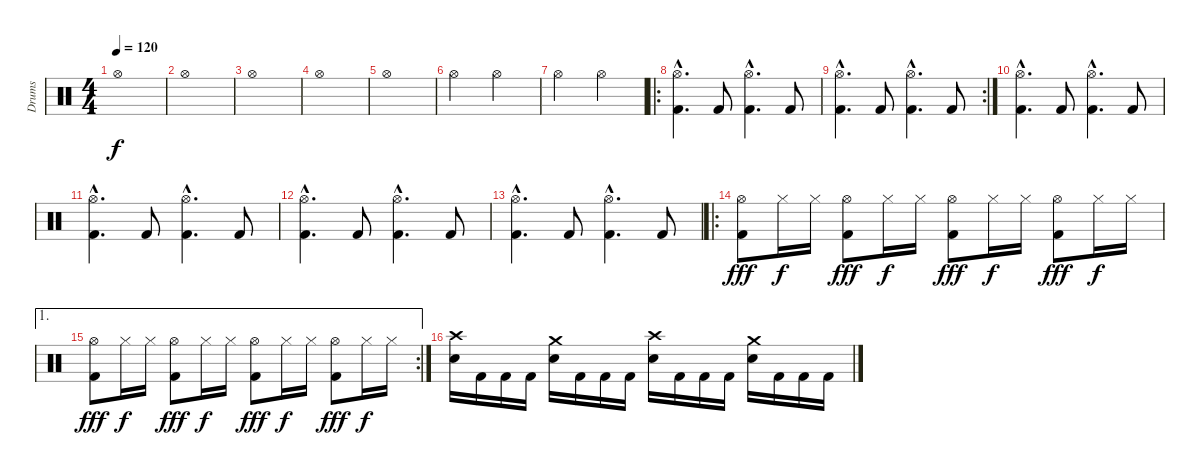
\track ("Drums" "Drums") {instrument percussion}
\staff {score}
\articulation defaults
\ts (4 4)
\tempo 120
\clef neutral
\ks c "Hi-Hat (open)".1{dy f}
|
"Hi-Hat (open)".1 |
"Hi-Hat (open)".1 |
"Hi-Hat (open)".1 |
"Hi-Hat (open)".1 |
"Hi-Hat (open)".2 "Hi-Hat (open)".2 |
"Hi-Hat (open)".2 "Hi-Hat (open)".2 |
\ro
("Hi-Hat (open)"{hac} "Kick (hit) 2"{hac}).4{d} "Kick (hit) 2".8 ("Hi-Hat (open)"{hac} "Kick (hit) 2"{hac}).4{d} "Kick (hit) 2".8 |
\rc 2
("Hi-Hat (open)"{hac} "Kick (hit) 2"{hac}).4{d} "Kick (hit) 2".8 ("Hi-Hat (open)"{hac} "Kick (hit) 2"{hac}).4{d} "Kick (hit) 2".8 |
("Hi-Hat (open)"{hac} "Kick (hit) 2"{hac}).4{d} "Kick (hit) 2".8 ("Hi-Hat (open)"{hac} "Kick (hit) 2"{hac}).4{d} "Kick (hit) 2".8 |
("Hi-Hat (open)"{hac} "Kick (hit) 2"{hac}).4{d} "Kick (hit) 2".8 ("Hi-Hat (open)"{hac} "Kick (hit) 2"{hac}).4{d} "Kick (hit) 2".8 |
("Hi-Hat (open)"{hac} "Kick (hit) 2"{hac}).4{d} "Kick (hit) 2".8 ("Hi-Hat (open)"{hac} "Kick (hit) 2"{hac}).4{d} "Kick (hit) 2".8 |
("Hi-Hat (open)"{hac} "Kick (hit) 2"{hac}).4{d} "Kick (hit) 2".8 ("Hi-Hat (open)"{hac} "Kick (hit) 2"{hac}).4{d} "Kick (hit) 2".8 |
\ro
("Hi-Hat (open)" "Kick (hit) 2").8{dy fff} "Hi-Hat (closed)".16{dy f} "Hi-Hat (closed)".16 ("Hi-Hat (open)" "Kick (hit) 2").8{dy fff} "Hi-Hat (closed)".16{dy f} "Hi-Hat (closed)".16 ("Hi-Hat (open)" "Kick (hit) 2").8{dy fff} "Hi-Hat (closed)".16{dy f} "Hi-Hat (closed)".16 ("Hi-Hat (open)" "Kick (hit) 2").8{dy fff} "Hi-Hat (closed)".16{dy f} "Hi-Hat (closed)".16 |
\ae 1
\rc 2
("Hi-Hat (open)" "Kick (hit) 2").8{dy fff} "Hi-Hat (closed)".16{dy f} "Hi-Hat (closed)".16 ("Hi-Hat (open)" "Kick (hit) 2").8{dy fff} "Hi-Hat (closed)".16{dy f} "Hi-Hat (closed)".16 ("Hi-Hat (open)" "Kick (hit) 2").8{dy fff} "Hi-Hat (closed)".16{dy f} "Hi-Hat (closed)".16 ("Hi-Hat (open)" "Kick (hit) 2").8{dy fff} "Hi-Hat (closed)".16{dy f} "Hi-Hat (closed)".16 |
("Crash high (hit)" "Snare (hit) 2").16 "Kick (hit) 2".16 "Kick (hit) 2".16 "Kick (hit) 2".16 ("Crash medium (hit)" "Snare (hit) 2").16 "Kick (hit) 2".16 "Kick (hit) 2".16 "Kick (hit) 2".16 ("Crash high (hit)" "Snare (hit) 2").16 "Kick (hit) 2".16 "Kick (hit) 2".16 "Kick (hit) 2".16 ("Crash medium (hit)" "Snare (hit) 2").16 "Kick (hit) 2".16 "Kick (hit) 2".16 "Kick (hit) 2".16
